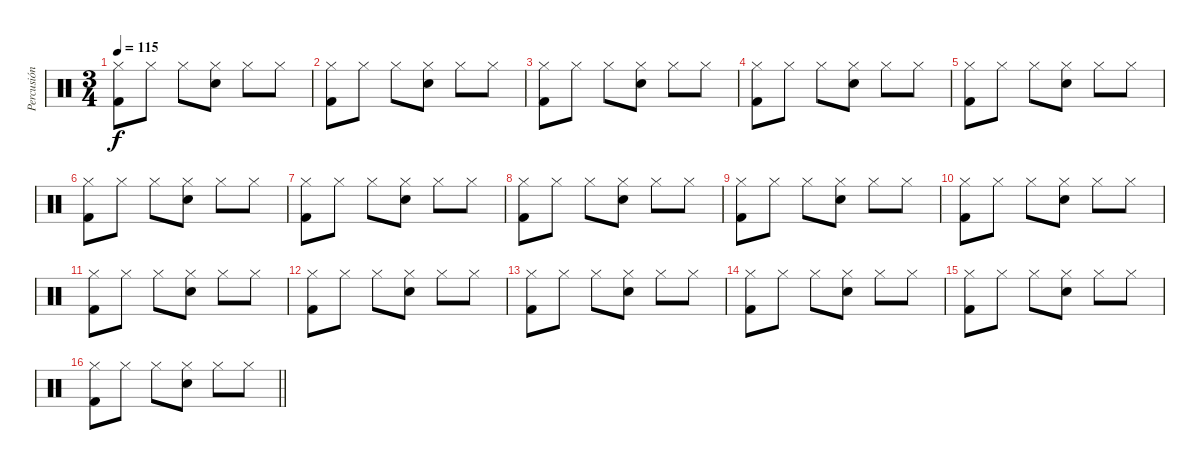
\track ("Percusión" "Percusión") {instrument percussion}
\staff {score}
\articulation defaults
\ts (3 4)
\tempo 115
\clef neutral
\ks c
("Hi-Hat (closed)" "Kick (hit) 2").8{dy f} "Hi-Hat (closed)".8 "Hi-Hat (closed)".8 ("Hi-Hat (closed)" "Electric Snare (hit)").8 "Hi-Hat (closed)".8 "Hi-Hat (closed)".8 |
("Hi-Hat (closed)" "Kick (hit) 2").8 "Hi-Hat (closed)".8 "Hi-Hat (closed)".8 ("Hi-Hat (closed)" "Electric Snare (hit)").8 "Hi-Hat (closed)".8 "Hi-Hat (closed)".8 |
("Hi-Hat (closed)" "Kick (hit) 2").8 "Hi-Hat (closed)".8 "Hi-Hat (closed)".8 ("Hi-Hat (closed)" "Electric Snare (hit)").8 "Hi-Hat (closed)".8 "Hi-Hat (closed)".8 |
("Hi-Hat (closed)" "Kick (hit) 2").8 "Hi-Hat (closed)".8 "Hi-Hat (closed)".8 ("Hi-Hat (closed)" "Electric Snare (hit)").8 "Hi-Hat (closed)".8 "Hi-Hat (closed)".8 |
("Hi-Hat (closed)" "Kick (hit) 2").8 "Hi-Hat (closed)".8 "Hi-Hat (closed)".8 ("Hi-Hat (closed)" "Electric Snare (hit)").8 "Hi-Hat (closed)".8 "Hi-Hat (closed)".8 |
("Hi-Hat (closed)" "Kick (hit) 2").8 "Hi-Hat (closed)".8 "Hi-Hat (closed)".8 ("Hi-Hat (closed)" "Electric Snare (hit)").8 "Hi-Hat (closed)".8 "Hi-Hat (closed)".8 |
("Hi-Hat (closed)" "Kick (hit) 2").8 "Hi-Hat (closed)".8 "Hi-Hat (closed)".8 ("Hi-Hat (closed)" "Electric Snare (hit)").8 "Hi-Hat (closed)".8 "Hi-Hat (closed)".8 |
("Hi-Hat (closed)" "Kick (hit) 2").8 "Hi-Hat (closed)".8 "Hi-Hat (closed)".8 ("Hi-Hat (closed)" "Electric Snare (hit)").8 "Hi-Hat (closed)".8 "Hi-Hat (closed)".8 |
("Hi-Hat (closed)" "Kick (hit) 2").8 "Hi-Hat (closed)".8 "Hi-Hat (closed)".8 ("Hi-Hat (closed)" "Electric Snare (hit)").8 "Hi-Hat (closed)".8 "Hi-Hat (closed)".8 |
("Hi-Hat (closed)" "Kick (hit) 2").8 "Hi-Hat (closed)".8 "Hi-Hat (closed)".8 ("Hi-Hat (closed)" "Electric Snare (hit)").8 "Hi-Hat (closed)".8 "Hi-Hat (closed)".8 |
("Hi-Hat (closed)" "Kick (hit) 2").8 "Hi-Hat (closed)".8 "Hi-Hat (closed)".8 ("Hi-Hat (closed)" "Electric Snare (hit)").8 "Hi-Hat (closed)".8 "Hi-Hat (closed)".8 |
("Hi-Hat (closed)" "Kick (hit) 2").8 "Hi-Hat (closed)".8 "Hi-Hat (closed)".8 ("Hi-Hat (closed)" "Electric Snare (hit)").8 "Hi-Hat (closed)".8 "Hi-Hat (closed)".8 |
("Hi-Hat (closed)" "Kick (hit) 2").8 "Hi-Hat (closed)".8 "Hi-Hat (closed)".8 ("Hi-Hat (closed)" "Electric Snare (hit)").8 "Hi-Hat (closed)".8 "Hi-Hat (closed)".8 |
("Hi-Hat (closed)" "Kick (hit) 2").8 "Hi-Hat (closed)".8 "Hi-Hat (closed)".8 ("Hi-Hat (closed)" "Electric Snare (hit)").8 "Hi-Hat (closed)".8 "Hi-Hat (closed)".8 |
("Hi-Hat (closed)" "Kick (hit) 2").8 "Hi-Hat (closed)".8 "Hi-Hat (closed)".8 ("Hi-Hat (closed)" "Electric Snare (hit)").8 "Hi-Hat (closed)".8 "Hi-Hat (closed)".8 |
\barLineRight lightlight
("Hi-Hat (closed)" "Kick (hit) 2").8 "Hi-Hat (closed)".8 "Hi-Hat (closed)".8 ("Hi-Hat (closed)" "Electric Snare (hit)").8 "Hi-Hat (closed)".8 "Hi-Hat (closed)".8
